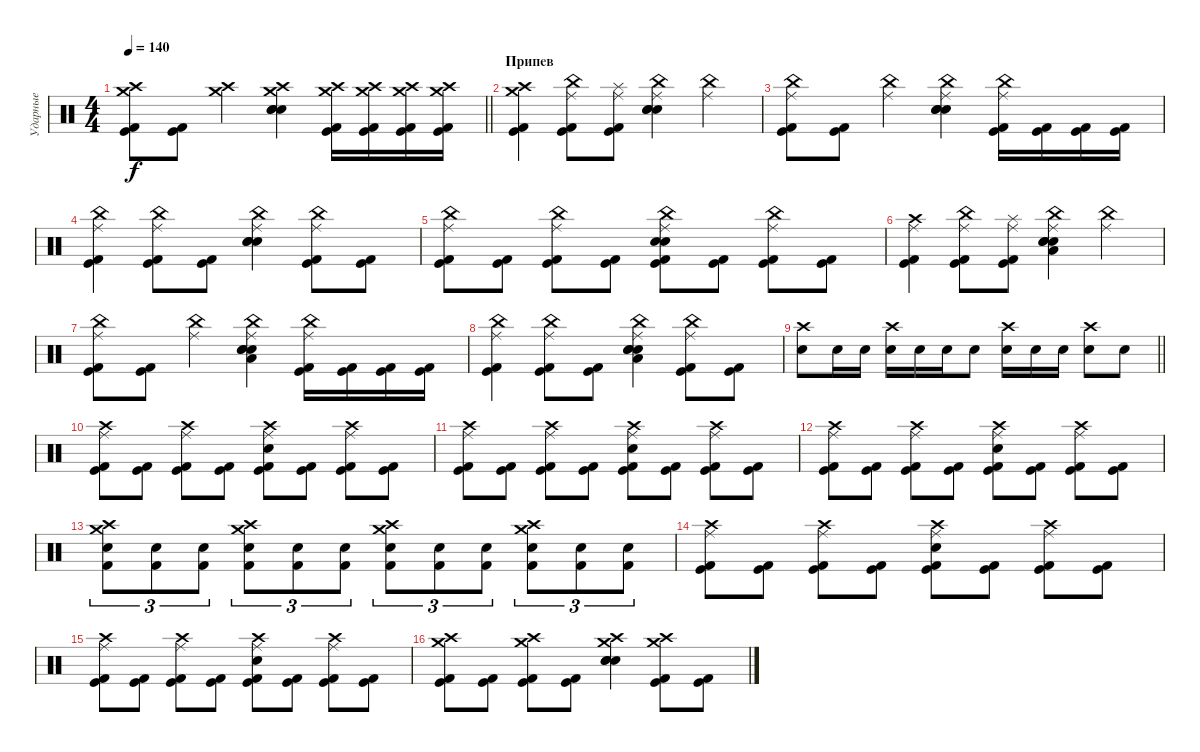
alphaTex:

\track ("Ударные" "Ударные") {instrument percussion}
\staff {score}
\articulation defaults
\ts (4 4)
\tempo 140
\clef neutral
\barLineRight lightlight
\ks c
("Crash high (hit)" "Crash medium (hit)" "Kick (hit)" "Kick (hit) 2").8{dy f} ("Kick (hit)" "Kick (hit) 2").8 ("Crash high (hit)" "Crash medium (hit)").4 ("Crash high (hit)" "Crash medium (hit)" "Electric Snare (hit)" "Snare (hit) 2" "Electric Snare (hit)").4 ("Crash high (hit)" "Crash medium (hit)" "Kick (hit)" "Kick (hit) 2").16 ("Crash medium (hit)" "Crash high (hit)" "Kick (hit)" "Kick (hit) 2").16 ("Crash medium (hit)" "Crash high (hit)" "Kick (hit)" "Kick (hit) 2").16 ("Crash medium (hit)" "Crash high (hit)" "Kick (hit)" "Kick (hit) 2").16 |
\section ("" "Припев")
("Crash medium (hit)" "Crash high (hit)" "Kick (hit)" "Kick (hit) 2").4 ("China (hit)" "Ride (middle)" "Kick (hit)" "Kick (hit) 2").8 ("Splash (hit)" "Ride (middle)" "Kick (hit)" "Kick (hit) 2").8 ("China (hit)" "Ride (middle)" "Snare (hit) 2" "Electric Snare (hit)" "Electric Snare (hit)").4 ("China (hit)" "Ride (middle)").4 |
("China (hit)" "Ride (middle)" "Kick (hit)" "Kick (hit) 2").8 ("Kick (hit)" "Kick (hit) 2").8 ("China (hit)" "Ride (middle)").4 ("China (hit)" "Ride (middle)" "Snare (hit) 2" "Electric Snare (hit)" "Electric Snare (hit)").4 ("China (hit)" "Ride (middle)" "Kick (hit)" "Kick (hit) 2").16 ("Kick (hit)" "Kick (hit) 2").16 ("Kick (hit)" "Kick (hit) 2").16 ("Kick (hit)" "Kick (hit) 2").16 |
("China (hit)" "Ride (middle)" "Kick (hit)" "Kick (hit) 2").4 ("China (hit)" "Ride (middle)" "Kick (hit)" "Kick (hit) 2").8 ("Kick (hit)" "Kick (hit) 2").8 ("China (hit)" "Ride (middle)" "Snare (hit) 2" "Electric Snare (hit)" "Electric Snare (hit)").4 ("China (hit)" "Ride (middle)" "Kick (hit)" "Kick (hit) 2").8 ("Kick (hit)" "Kick (hit) 2").8 |
("China (hit)" "Ride (middle)" "Kick (hit)" "Kick (hit) 2").8 ("Kick (hit)" "Kick (hit) 2").8 ("China (hit)" "Ride (middle)" "Kick (hit)" "Kick (hit) 2").8 ("Kick (hit)" "Kick (hit) 2").8 ("China (hit)" "Ride (middle)" "Snare (hit) 2" "Electric Snare (hit)" "Kick (hit)" "Kick (hit) 2").8 ("Kick (hit)" "Kick (hit) 2").8 ("China (hit)" "Ride (middle)" "Kick (hit)" "Kick (hit) 2").8 ("Kick (hit)" "Kick (hit) 2").8 |
("Crash high (hit)" "Ride (middle)" "Kick (hit)" "Kick (hit) 2").4 ("China (hit)" "Ride (middle)" "Kick (hit)" "Kick (hit) 2").8 ("Splash (hit)" "Ride (middle)" "Kick (hit)" "Kick (hit) 2").8 ("China (hit)" "Electric Snare (hit)" "Ride (middle)" "Electric Snare (hit)" "Snare (hit) 2" "Low Floor Tom (hit)").4 ("China (hit)" "Ride (middle)").4 |
("China (hit)" "Ride (middle)" "Kick (hit)" "Kick (hit) 2").8 ("Kick (hit)" "Kick (hit) 2").8 ("China (hit)" "Ride (middle)").4 ("China (hit)" "Ride (middle)" "Electric Snare (hit)" "Electric Snare (hit)" "Snare (hit) 2" "Low Floor Tom (hit)").4 ("China (hit)" "Ride (middle)" "Kick (hit)" "Kick (hit) 2").16 ("Kick (hit)" "Kick (hit) 2").16 ("Kick (hit)" "Kick (hit) 2").16 ("Kick (hit)" "Kick (hit) 2").16 |
("China (hit)" "Ride (middle)" "Kick (hit)" "Kick (hit) 2").4 ("China (hit)" "Ride (middle)" "Kick (hit)" "Kick (hit) 2").8 ("Kick (hit)" "Kick (hit) 2").8 ("China (hit)" "Ride (middle)" "Electric Snare (hit)" "Electric Snare (hit)" "Snare (hit) 2" "Low Floor Tom (hit)").4 ("China (hit)" "Ride (middle)" "Kick (hit)" "Kick (hit) 2").8 ("Kick (hit)" "Kick (hit) 2").8 |
\barLineRight lightlight
("Snare (hit) 2" "Crash high (hit)").8 "Snare (hit) 2".16 "Snare (hit) 2".16 ("Snare (hit) 2" "Crash high (hit)").16 "Snare (hit) 2".16 "Snare (hit) 2".16 "Snare (hit) 2".8 ("Snare (hit) 2" "Crash high (hit)").16 "Snare (hit) 2".16 "Snare (hit) 2".16 ("Snare (hit) 2" "Crash high (hit)").8 "Snare (hit) 2".8 |
("Crash high (hit)" "Ride (middle)" "Kick (hit)" "Kick (hit) 2").8 ("Kick (hit)" "Kick (hit) 2").8 ("Crash high (hit)" "Ride (middle)" "Kick (hit)" "Kick (hit) 2").8 ("Kick (hit)" "Kick (hit) 2").8 ("Crash high (hit)" "Ride (middle)" "Electric Snare (hit)" "Kick (hit)" "Kick (hit) 2").8 ("Kick (hit)" "Kick (hit) 2").8 ("Crash high (hit)" "Ride (middle)" "Kick (hit)" "Kick (hit) 2").8 ("Kick (hit)" "Kick (hit) 2").8 |
("Crash high (hit)" "Ride (middle)" "Kick (hit)" "Kick (hit) 2").8 ("Kick (hit)" "Kick (hit) 2").8 ("Crash high (hit)" "Ride (middle)" "Kick (hit)" "Kick (hit) 2").8 ("Kick (hit)" "Kick (hit) 2").8 ("Crash high (hit)" "Ride (middle)" "Electric Snare (hit)" "Kick (hit)" "Kick (hit) 2").8 ("Kick (hit)" "Kick (hit) 2").8 ("Crash high (hit)" "Ride (middle)" "Kick (hit)" "Kick (hit) 2").8 ("Kick (hit)" "Kick (hit) 2").8 |
("Crash high (hit)" "Ride (middle)" "Kick (hit)" "Kick (hit) 2").8 ("Kick (hit)" "Kick (hit) 2").8 ("Crash high (hit)" "Ride (middle)" "Kick (hit)" "Kick (hit) 2").8 ("Kick (hit)" "Kick (hit) 2").8 ("Crash high (hit)" "Ride (middle)" "Electric Snare (hit)" "Kick (hit)" "Kick (hit) 2").8 ("Kick (hit)" "Kick (hit) 2").8 ("Crash high (hit)" "Ride (middle)" "Kick (hit)" "Kick (hit) 2").8 ("Kick (hit)" "Kick (hit) 2").8 |
("Crash high (hit)" "Snare (hit) 2" "Crash medium (hit)" "Kick (hit) 2").8{tu (3 2)} ("Snare (hit) 2" "Kick (hit) 2").8{tu (3 2)} ("Snare (hit) 2" "Kick (hit) 2").8{tu (3 2)} ("Crash high (hit)" "Snare (hit) 2" "Kick (hit) 2" "Crash medium (hit)").8{tu (3 2)} ("Snare (hit) 2" "Kick (hit) 2").8{tu (3 2)} ("Snare (hit) 2" "Kick (hit) 2").8{tu (3 2)} ("Crash high (hit)" "Snare (hit) 2" "Kick (hit) 2" "Crash medium (hit)").8{tu (3 2)} ("Snare (hit) 2" "Kick (hit) 2").8{tu (3 2)} ("Snare (hit) 2" "Kick (hit) 2").8{tu (3 2)} ("Crash high (hit)" "Snare (hit) 2" "Kick (hit) 2" "Crash medium (hit)").8{tu (3 2)} ("Snare (hit) 2" "Kick (hit) 2").8{tu (3 2)} ("Snare (hit) 2" "Kick (hit) 2").8{tu (3 2)} |
("Crash high (hit)" "Ride (middle)" "Kick (hit)" "Kick (hit) 2").8 ("Kick (hit)" "Kick (hit) 2").8 ("Crash high (hit)" "Ride (middle)" "Kick (hit)" "Kick (hit) 2").8 ("Kick (hit)" "Kick (hit) 2").8 ("Crash high (hit)" "Ride (middle)" "Electric Snare (hit)" "Kick (hit)" "Kick (hit) 2").8 ("Kick (hit)" "Kick (hit) 2").8 ("Crash high (hit)" "Ride (middle)" "Kick (hit)" "Kick (hit) 2").8 ("Kick (hit)" "Kick (hit) 2").8 |
("Crash high (hit)" "Ride (middle)" "Kick (hit)" "Kick (hit) 2").8 ("Kick (hit)" "Kick (hit) 2").8 ("Crash high (hit)" "Ride (middle)" "Kick (hit)" "Kick (hit) 2").8 ("Kick (hit)" "Kick (hit) 2").8 ("Crash high (hit)" "Ride (middle)" "Electric Snare (hit)" "Kick (hit)" "Kick (hit) 2").8 ("Kick (hit)" "Kick (hit) 2").8 ("Crash high (hit)" "Ride (middle)" "Kick (hit)" "Kick (hit) 2").8 ("Kick (hit)" "Kick (hit) 2").8 |
("Crash high (hit)" "Crash medium (hit)" "Kick (hit)" "Kick (hit) 2").8 ("Kick (hit)" "Kick (hit) 2").8 ("Crash high (hit)" "Crash medium (hit)" "Kick (hit)" "Kick (hit) 2").8 ("Kick (hit)" "Kick (hit) 2").8 ("Crash high (hit)" "Crash medium (hit)" "Snare (hit) 2" "Electric Snare (hit)" "Electric Snare (hit)").4 ("Crash high (hit)" "Crash medium (hit)" "Kick (hit)" "Kick (hit) 2").8 ("Kick (hit)" "Kick (hit) 2").8
